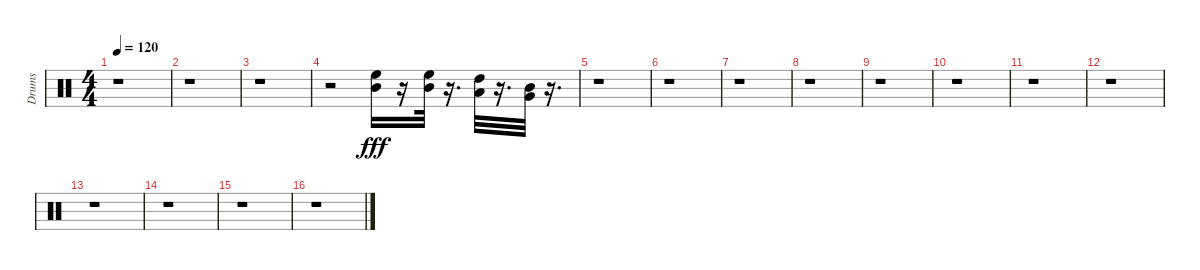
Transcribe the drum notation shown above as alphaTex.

\track ("Drums" "Drums") {instrument percussion}
\staff {score}
\articulation defaults
\ts (4 4)
\tempo 120
\clef neutral
\ks c
r.1{dy fff} |
r.1 |
r.1 |
r.2 ("Mid Tom (hit)" "High Floor Tom (hit)").16 r.16 ("Mid Tom (hit)" "High Floor Tom (hit)").32 r.16{d} ("Low Tom (hit)" "High Tom (hit)").32 r.16{d} ("Very Low Tom (hit)" "Mid Tom (hit)").32 r.16{d} |
r.1 |
r.1 |
r.1 |
r.1 |
r.1 |
r.1 |
r.1 |
r.1 |
r.1 |
r.1 |
r.1 |
r.1
